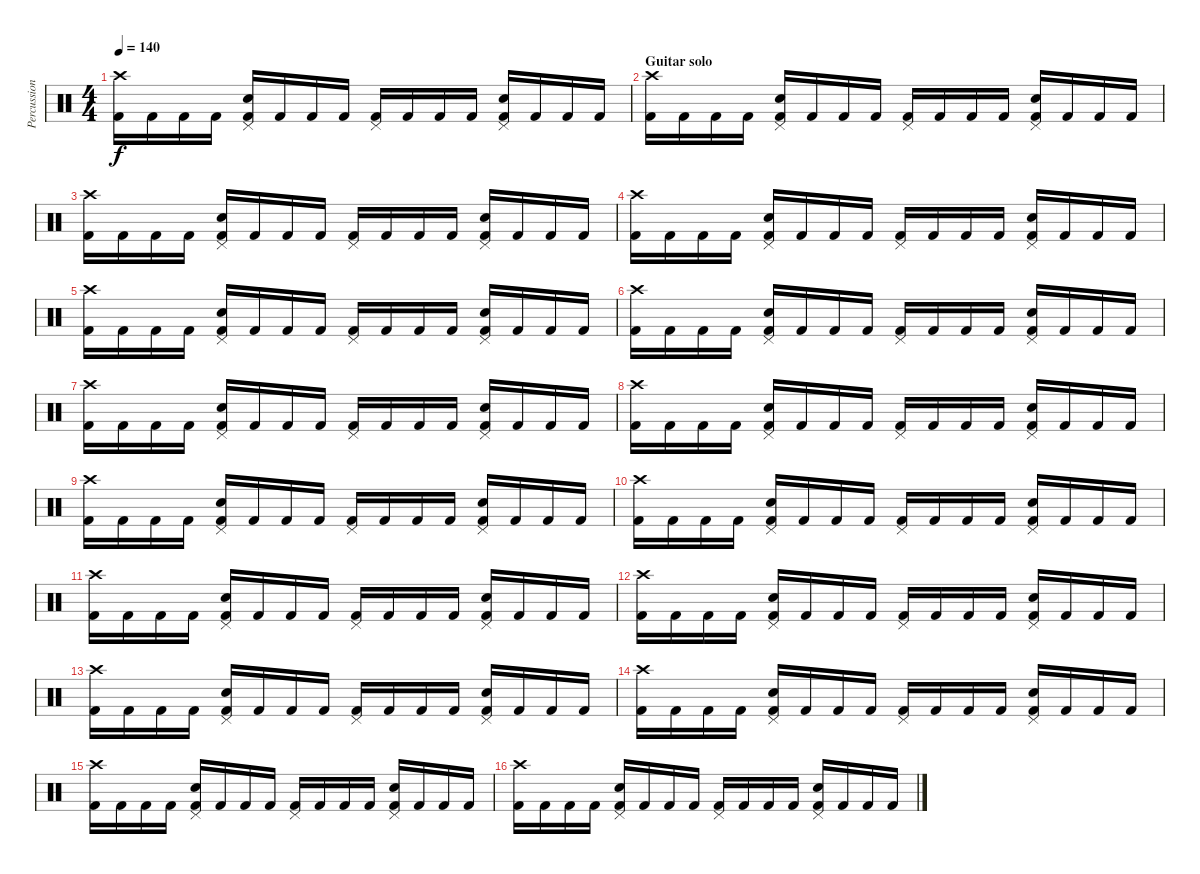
\track ("Percussion" "Percussion") {instrument percussion}
\staff {score}
\articulation defaults
\ts (4 4)
\tempo 140
\clef neutral
\ks c
("Crash high (hit)" "Kick (hit) 2").16{dy f} "Kick (hit) 2".16 "Kick (hit) 2".16 "Kick (hit) 2".16 ("Pedal Hi-Hat (hit)" "Electric Snare (hit)" "Kick (hit) 2").16 "Kick (hit) 2".16 "Kick (hit) 2".16 "Kick (hit) 2".16 ("Pedal Hi-Hat (hit)" "Kick (hit) 2").16 "Kick (hit) 2".16 "Kick (hit) 2".16 "Kick (hit) 2".16 ("Pedal Hi-Hat (hit)" "Electric Snare (hit)" "Kick (hit) 2").16 "Kick (hit) 2".16 "Kick (hit) 2".16 "Kick (hit) 2".16 |
\section ("" "Guitar solo")
("Crash high (hit)" "Kick (hit) 2").16 "Kick (hit) 2".16 "Kick (hit) 2".16 "Kick (hit) 2".16 ("Pedal Hi-Hat (hit)" "Electric Snare (hit)" "Kick (hit) 2").16 "Kick (hit) 2".16 "Kick (hit) 2".16 "Kick (hit) 2".16 ("Pedal Hi-Hat (hit)" "Kick (hit) 2").16 "Kick (hit) 2".16 "Kick (hit) 2".16 "Kick (hit) 2".16 ("Pedal Hi-Hat (hit)" "Electric Snare (hit)" "Kick (hit) 2").16 "Kick (hit) 2".16 "Kick (hit) 2".16 "Kick (hit) 2".16 |
("Crash high (hit)" "Kick (hit) 2").16 "Kick (hit) 2".16 "Kick (hit) 2".16 "Kick (hit) 2".16 ("Pedal Hi-Hat (hit)" "Electric Snare (hit)" "Kick (hit) 2").16 "Kick (hit) 2".16 "Kick (hit) 2".16 "Kick (hit) 2".16 ("Pedal Hi-Hat (hit)" "Kick (hit) 2").16 "Kick (hit) 2".16 "Kick (hit) 2".16 "Kick (hit) 2".16 ("Pedal Hi-Hat (hit)" "Electric Snare (hit)" "Kick (hit) 2").16 "Kick (hit) 2".16 "Kick (hit) 2".16 "Kick (hit) 2".16 |
("Crash high (hit)" "Kick (hit) 2").16 "Kick (hit) 2".16 "Kick (hit) 2".16 "Kick (hit) 2".16 ("Pedal Hi-Hat (hit)" "Electric Snare (hit)" "Kick (hit) 2").16 "Kick (hit) 2".16 "Kick (hit) 2".16 "Kick (hit) 2".16 ("Pedal Hi-Hat (hit)" "Kick (hit) 2").16 "Kick (hit) 2".16 "Kick (hit) 2".16 "Kick (hit) 2".16 ("Pedal Hi-Hat (hit)" "Electric Snare (hit)" "Kick (hit) 2").16 "Kick (hit) 2".16 "Kick (hit) 2".16 "Kick (hit) 2".16 |
("Crash high (hit)" "Kick (hit) 2").16 "Kick (hit) 2".16 "Kick (hit) 2".16 "Kick (hit) 2".16 ("Pedal Hi-Hat (hit)" "Electric Snare (hit)" "Kick (hit) 2").16 "Kick (hit) 2".16 "Kick (hit) 2".16 "Kick (hit) 2".16 ("Pedal Hi-Hat (hit)" "Kick (hit) 2").16 "Kick (hit) 2".16 "Kick (hit) 2".16 "Kick (hit) 2".16 ("Pedal Hi-Hat (hit)" "Electric Snare (hit)" "Kick (hit) 2").16 "Kick (hit) 2".16 "Kick (hit) 2".16 "Kick (hit) 2".16 |
("Crash high (hit)" "Kick (hit) 2").16 "Kick (hit) 2".16 "Kick (hit) 2".16 "Kick (hit) 2".16 ("Pedal Hi-Hat (hit)" "Electric Snare (hit)" "Kick (hit) 2").16 "Kick (hit) 2".16 "Kick (hit) 2".16 "Kick (hit) 2".16 ("Pedal Hi-Hat (hit)" "Kick (hit) 2").16 "Kick (hit) 2".16 "Kick (hit) 2".16 "Kick (hit) 2".16 ("Pedal Hi-Hat (hit)" "Electric Snare (hit)" "Kick (hit) 2").16 "Kick (hit) 2".16 "Kick (hit) 2".16 "Kick (hit) 2".16 |
("Crash high (hit)" "Kick (hit) 2").16 "Kick (hit) 2".16 "Kick (hit) 2".16 "Kick (hit) 2".16 ("Pedal Hi-Hat (hit)" "Electric Snare (hit)" "Kick (hit) 2").16 "Kick (hit) 2".16 "Kick (hit) 2".16 "Kick (hit) 2".16 ("Pedal Hi-Hat (hit)" "Kick (hit) 2").16 "Kick (hit) 2".16 "Kick (hit) 2".16 "Kick (hit) 2".16 ("Pedal Hi-Hat (hit)" "Electric Snare (hit)" "Kick (hit) 2").16 "Kick (hit) 2".16 "Kick (hit) 2".16 "Kick (hit) 2".16 |
("Crash high (hit)" "Kick (hit) 2").16 "Kick (hit) 2".16 "Kick (hit) 2".16 "Kick (hit) 2".16 ("Pedal Hi-Hat (hit)" "Electric Snare (hit)" "Kick (hit) 2").16 "Kick (hit) 2".16 "Kick (hit) 2".16 "Kick (hit) 2".16 ("Pedal Hi-Hat (hit)" "Kick (hit) 2").16 "Kick (hit) 2".16 "Kick (hit) 2".16 "Kick (hit) 2".16 ("Pedal Hi-Hat (hit)" "Electric Snare (hit)" "Kick (hit) 2").16 "Kick (hit) 2".16 "Kick (hit) 2".16 "Kick (hit) 2".16 |
("Crash high (hit)" "Kick (hit) 2").16 "Kick (hit) 2".16 "Kick (hit) 2".16 "Kick (hit) 2".16 ("Pedal Hi-Hat (hit)" "Electric Snare (hit)" "Kick (hit) 2").16 "Kick (hit) 2".16 "Kick (hit) 2".16 "Kick (hit) 2".16 ("Pedal Hi-Hat (hit)" "Kick (hit) 2").16 "Kick (hit) 2".16 "Kick (hit) 2".16 "Kick (hit) 2".16 ("Pedal Hi-Hat (hit)" "Electric Snare (hit)" "Kick (hit) 2").16 "Kick (hit) 2".16 "Kick (hit) 2".16 "Kick (hit) 2".16 |
("Crash high (hit)" "Kick (hit) 2").16 "Kick (hit) 2".16 "Kick (hit) 2".16 "Kick (hit) 2".16 ("Pedal Hi-Hat (hit)" "Electric Snare (hit)" "Kick (hit) 2").16 "Kick (hit) 2".16 "Kick (hit) 2".16 "Kick (hit) 2".16 ("Pedal Hi-Hat (hit)" "Kick (hit) 2").16 "Kick (hit) 2".16 "Kick (hit) 2".16 "Kick (hit) 2".16 ("Pedal Hi-Hat (hit)" "Electric Snare (hit)" "Kick (hit) 2").16 "Kick (hit) 2".16 "Kick (hit) 2".16 "Kick (hit) 2".16 |
("Crash high (hit)" "Kick (hit) 2").16 "Kick (hit) 2".16 "Kick (hit) 2".16 "Kick (hit) 2".16 ("Pedal Hi-Hat (hit)" "Electric Snare (hit)" "Kick (hit) 2").16 "Kick (hit) 2".16 "Kick (hit) 2".16 "Kick (hit) 2".16 ("Pedal Hi-Hat (hit)" "Kick (hit) 2").16 "Kick (hit) 2".16 "Kick (hit) 2".16 "Kick (hit) 2".16 ("Pedal Hi-Hat (hit)" "Electric Snare (hit)" "Kick (hit) 2").16 "Kick (hit) 2".16 "Kick (hit) 2".16 "Kick (hit) 2".16 |
("Crash high (hit)" "Kick (hit) 2").16 "Kick (hit) 2".16 "Kick (hit) 2".16 "Kick (hit) 2".16 ("Pedal Hi-Hat (hit)" "Electric Snare (hit)" "Kick (hit) 2").16 "Kick (hit) 2".16 "Kick (hit) 2".16 "Kick (hit) 2".16 ("Pedal Hi-Hat (hit)" "Kick (hit) 2").16 "Kick (hit) 2".16 "Kick (hit) 2".16 "Kick (hit) 2".16 ("Pedal Hi-Hat (hit)" "Electric Snare (hit)" "Kick (hit) 2").16 "Kick (hit) 2".16 "Kick (hit) 2".16 "Kick (hit) 2".16 |
("Crash high (hit)" "Kick (hit) 2").16 "Kick (hit) 2".16 "Kick (hit) 2".16 "Kick (hit) 2".16 ("Pedal Hi-Hat (hit)" "Electric Snare (hit)" "Kick (hit) 2").16 "Kick (hit) 2".16 "Kick (hit) 2".16 "Kick (hit) 2".16 ("Pedal Hi-Hat (hit)" "Kick (hit) 2").16 "Kick (hit) 2".16 "Kick (hit) 2".16 "Kick (hit) 2".16 ("Pedal Hi-Hat (hit)" "Electric Snare (hit)" "Kick (hit) 2").16 "Kick (hit) 2".16 "Kick (hit) 2".16 "Kick (hit) 2".16 |
("Crash high (hit)" "Kick (hit) 2").16 "Kick (hit) 2".16 "Kick (hit) 2".16 "Kick (hit) 2".16 ("Pedal Hi-Hat (hit)" "Electric Snare (hit)" "Kick (hit) 2").16 "Kick (hit) 2".16 "Kick (hit) 2".16 "Kick (hit) 2".16 ("Pedal Hi-Hat (hit)" "Kick (hit) 2").16 "Kick (hit) 2".16 "Kick (hit) 2".16 "Kick (hit) 2".16 ("Pedal Hi-Hat (hit)" "Electric Snare (hit)" "Kick (hit) 2").16 "Kick (hit) 2".16 "Kick (hit) 2".16 "Kick (hit) 2".16 |
("Crash high (hit)" "Kick (hit) 2").16 "Kick (hit) 2".16 "Kick (hit) 2".16 "Kick (hit) 2".16 ("Pedal Hi-Hat (hit)" "Electric Snare (hit)" "Kick (hit) 2").16 "Kick (hit) 2".16 "Kick (hit) 2".16 "Kick (hit) 2".16 ("Pedal Hi-Hat (hit)" "Kick (hit) 2").16 "Kick (hit) 2".16 "Kick (hit) 2".16 "Kick (hit) 2".16 ("Pedal Hi-Hat (hit)" "Electric Snare (hit)" "Kick (hit) 2").16 "Kick (hit) 2".16 "Kick (hit) 2".16 "Kick (hit) 2".16 |
("Crash high (hit)" "Kick (hit) 2").16 "Kick (hit) 2".16 "Kick (hit) 2".16 "Kick (hit) 2".16 ("Pedal Hi-Hat (hit)" "Electric Snare (hit)" "Kick (hit) 2").16 "Kick (hit) 2".16 "Kick (hit) 2".16 "Kick (hit) 2".16 ("Pedal Hi-Hat (hit)" "Kick (hit) 2").16 "Kick (hit) 2".16 "Kick (hit) 2".16 "Kick (hit) 2".16 ("Pedal Hi-Hat (hit)" "Electric Snare (hit)" "Kick (hit) 2").16 "Kick (hit) 2".16 "Kick (hit) 2".16 "Kick (hit) 2".16
